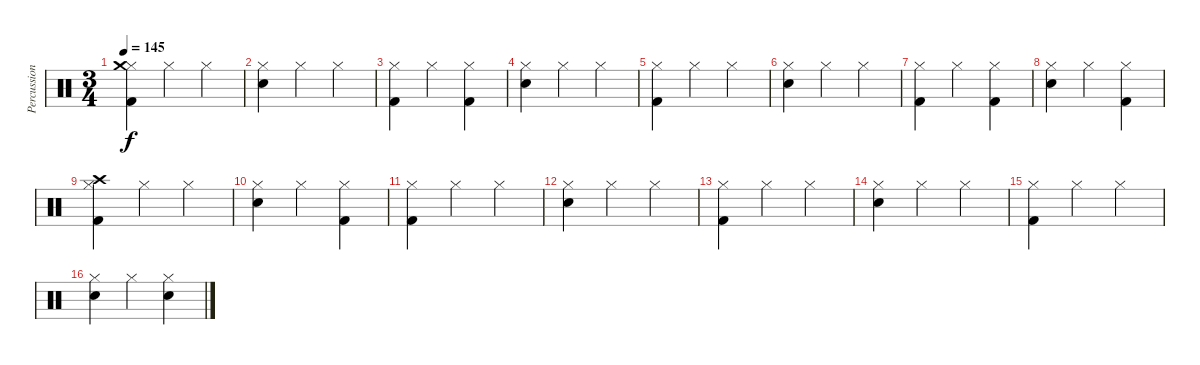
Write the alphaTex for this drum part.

\track ("Percussion" "Percussion") {instrument percussion}
\staff {score}
\articulation defaults
\ts (3 4)
\tempo 145
\clef neutral
\ks c
("Hi-Hat (closed)" "Kick (hit) 2" "Crash medium (hit)").4{dy f} "Hi-Hat (closed)".4 "Hi-Hat (closed)".4 |
("Hi-Hat (closed)" "Electric Snare (hit)").4 "Hi-Hat (closed)".4 "Hi-Hat (closed)".4 |
("Hi-Hat (closed)" "Kick (hit) 2").4 "Hi-Hat (closed)".4 ("Hi-Hat (closed)" "Kick (hit) 2").4 |
("Hi-Hat (closed)" "Electric Snare (hit)").4 "Hi-Hat (closed)".4 "Hi-Hat (closed)".4 |
("Hi-Hat (closed)" "Kick (hit) 2").4 "Hi-Hat (closed)".4 "Hi-Hat (closed)".4 |
("Hi-Hat (closed)" "Electric Snare (hit)").4 "Hi-Hat (closed)".4 "Hi-Hat (closed)".4 |
("Hi-Hat (closed)" "Kick (hit) 2").4 "Hi-Hat (closed)".4 ("Hi-Hat (closed)" "Kick (hit) 2").4 |
("Hi-Hat (closed)" "Electric Snare (hit)").4 "Hi-Hat (closed)".4 ("Hi-Hat (closed)" "Kick (hit) 2").4 |
("Hi-Hat (closed)" "Kick (hit) 2" "Crash high (hit)").4 "Hi-Hat (closed)".4 "Hi-Hat (closed)".4 |
("Hi-Hat (closed)" "Electric Snare (hit)").4 "Hi-Hat (closed)".4 ("Hi-Hat (closed)" "Kick (hit) 2").4 |
("Hi-Hat (closed)" "Kick (hit) 2").4 "Hi-Hat (closed)".4 "Hi-Hat (closed)".4 |
("Hi-Hat (closed)" "Electric Snare (hit)").4 "Hi-Hat (closed)".4 "Hi-Hat (closed)".4 |
("Hi-Hat (closed)" "Kick (hit) 2").4 "Hi-Hat (closed)".4 "Hi-Hat (closed)".4 |
("Hi-Hat (closed)" "Electric Snare (hit)").4 "Hi-Hat (closed)".4 "Hi-Hat (closed)".4 |
("Hi-Hat (closed)" "Kick (hit) 2").4 "Hi-Hat (closed)".4 "Hi-Hat (closed)".4 |
("Hi-Hat (closed)" "Electric Snare (hit)").4 "Hi-Hat (closed)".4 ("Hi-Hat (closed)" "Electric Snare (hit)").4
